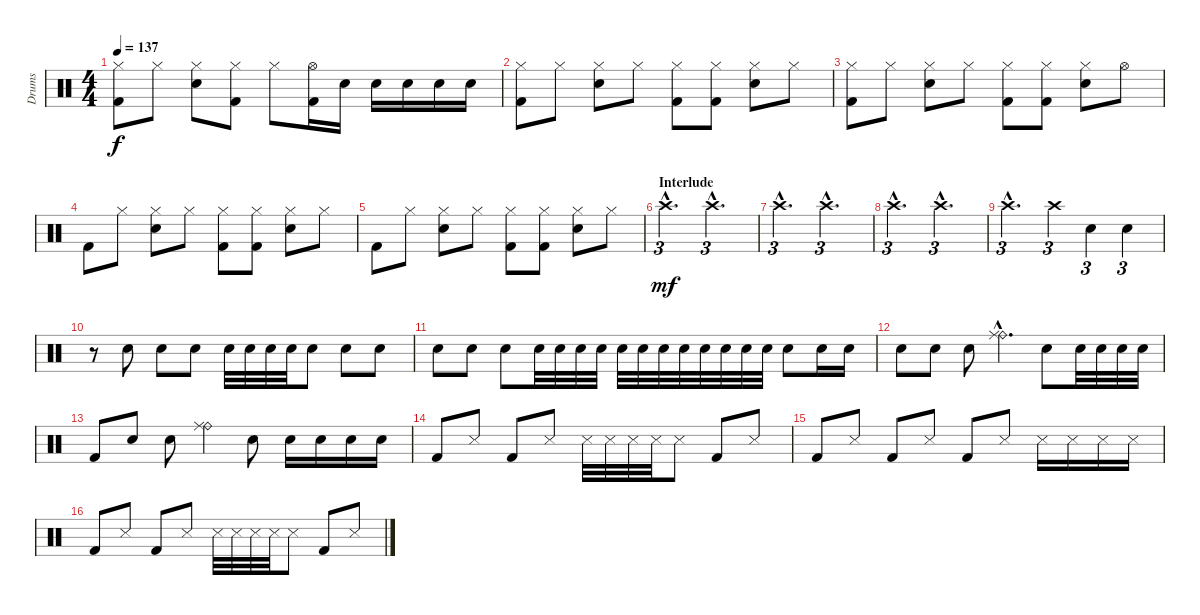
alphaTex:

\track ("Drums" "Drums") {instrument percussion}
\staff {score}
\articulation defaults
\ts (4 4)
\tempo 137
\clef neutral
\ks c
("Hi-Hat (closed)" "Kick (hit) 2").8{dy f} "Hi-Hat (closed)".8 ("Hi-Hat (closed)" "Snare (hit) 2").8 ("Hi-Hat (closed)" "Kick (hit) 2").8 "Hi-Hat (closed)".8 ("Hi-Hat (open)" "Kick (hit) 2").16 "Snare (hit) 2".16 "Snare (hit) 2".16 "Snare (hit) 2".16 "Snare (hit) 2".16 "Snare (hit) 2".16 |
("Hi-Hat (closed)" "Kick (hit) 2").8 "Hi-Hat (closed)".8 ("Hi-Hat (closed)" "Snare (hit) 2").8 "Hi-Hat (closed)".8 ("Hi-Hat (closed)" "Kick (hit) 2").8 ("Hi-Hat (closed)" "Kick (hit) 2").8 ("Hi-Hat (closed)" "Snare (hit) 2").8 "Hi-Hat (closed)".8 |
("Hi-Hat (closed)" "Kick (hit) 2").8 "Hi-Hat (closed)".8 ("Hi-Hat (closed)" "Snare (hit) 2").8 "Hi-Hat (closed)".8 ("Hi-Hat (closed)" "Kick (hit) 2").8 ("Hi-Hat (closed)" "Kick (hit) 2").8 ("Hi-Hat (closed)" "Snare (hit) 2").8 "Hi-Hat (open)".8 |
"Kick (hit) 2".8 "Hi-Hat (closed)".8 ("Hi-Hat (closed)" "Snare (hit) 2").8 "Hi-Hat (closed)".8 ("Hi-Hat (closed)" "Kick (hit) 2").8 ("Hi-Hat (closed)" "Kick (hit) 2").8 ("Hi-Hat (closed)" "Snare (hit) 2").8 "Hi-Hat (closed)".8 |
"Kick (hit) 2".8 "Hi-Hat (closed)".8 ("Hi-Hat (closed)" "Snare (hit) 2").8 "Hi-Hat (closed)".8 ("Hi-Hat (closed)" "Kick (hit) 2").8 ("Hi-Hat (closed)" "Kick (hit) 2").8 ("Hi-Hat (closed)" "Snare (hit) 2").8 "Hi-Hat (closed)".8 |
\section ("" "Interlude")
"Crash high (hit)"{hac}.2{d tu (3 2) dy mf} "Crash high (hit)"{hac}.2{d tu (3 2)} |
"Crash high (hit)"{hac}.2{d tu (3 2)} "Crash high (hit)"{hac}.2{d tu (3 2)} |
"Crash high (hit)"{hac}.2{d tu (3 2)} "Crash high (hit)"{hac}.2{d tu (3 2)} |
"Crash high (hit)"{hac}.2{d tu (3 2)} "Crash high (hit)".4{tu (3 2)} "Electric Snare (hit)".4{tu (3 2)} "Electric Snare (hit)".4{tu (3 2)} |
r.8 "Electric Snare (hit)".8 "Electric Snare (hit)".8 "Electric Snare (hit)".8 "Electric Snare (hit)".32 "Electric Snare (hit)".32 "Electric Snare (hit)".32 "Electric Snare (hit)".32 "Electric Snare (hit)".8 "Electric Snare (hit)".8 "Electric Snare (hit)".8 |
"Electric Snare (hit)".8 "Electric Snare (hit)".8 "Electric Snare (hit)".8 "Electric Snare (hit)".32 "Electric Snare (hit)".32 "Electric Snare (hit)".32 "Electric Snare (hit)".32 "Electric Snare (hit)".32 "Electric Snare (hit)".32 "Electric Snare (hit)".32 "Electric Snare (hit)".32 "Electric Snare (hit)".32 "Electric Snare (hit)".32 "Electric Snare (hit)".32 "Electric Snare (hit)".32 "Electric Snare (hit)".8 "Electric Snare (hit)".16 "Electric Snare (hit)".16 |
"Electric Snare (hit)".8 "Electric Snare (hit)".8 "Electric Snare (hit)".8 ("Ride (bell)"{hac} "Ride (middle)"{hac}).4{d} "Electric Snare (hit)".8 "Electric Snare (hit)".32 "Electric Snare (hit)".32 "Electric Snare (hit)".32 "Electric Snare (hit)".32 |
"Kick (hit) 2".8 "Electric Snare (hit)".8 "Electric Snare (hit)".8 ("Ride (bell)" "Ride (middle)").4 "Electric Snare (hit)".8 "Electric Snare (hit)".16 "Electric Snare (hit)".16 "Electric Snare (hit)".16 "Electric Snare (hit)".16 |
"Kick (hit) 2".8 "Snare (side stick) 3".8 "Kick (hit) 2".8 "Snare (side stick) 3".8 "Snare (side stick) 3".32 "Snare (side stick) 3".32 "Snare (side stick) 3".32 "Snare (side stick) 3".32 "Snare (side stick) 3".8 "Kick (hit) 2".8 "Snare (side stick) 3".8 |
"Kick (hit) 2".8 "Snare (side stick) 3".8 "Kick (hit) 2".8 "Snare (side stick) 3".8 "Kick (hit) 2".8 "Snare (side stick) 3".8 "Snare (side stick) 3".16 "Snare (side stick) 3".16 "Snare (side stick) 3".16 "Snare (side stick) 3".16 |
"Kick (hit) 2".8 "Snare (side stick) 3".8 "Kick (hit) 2".8 "Snare (side stick) 3".8 "Snare (side stick) 3".32 "Snare (side stick) 3".32 "Snare (side stick) 3".32 "Snare (side stick) 3".32 "Snare (side stick) 3".8 "Kick (hit) 2".8 "Snare (side stick) 3".8
